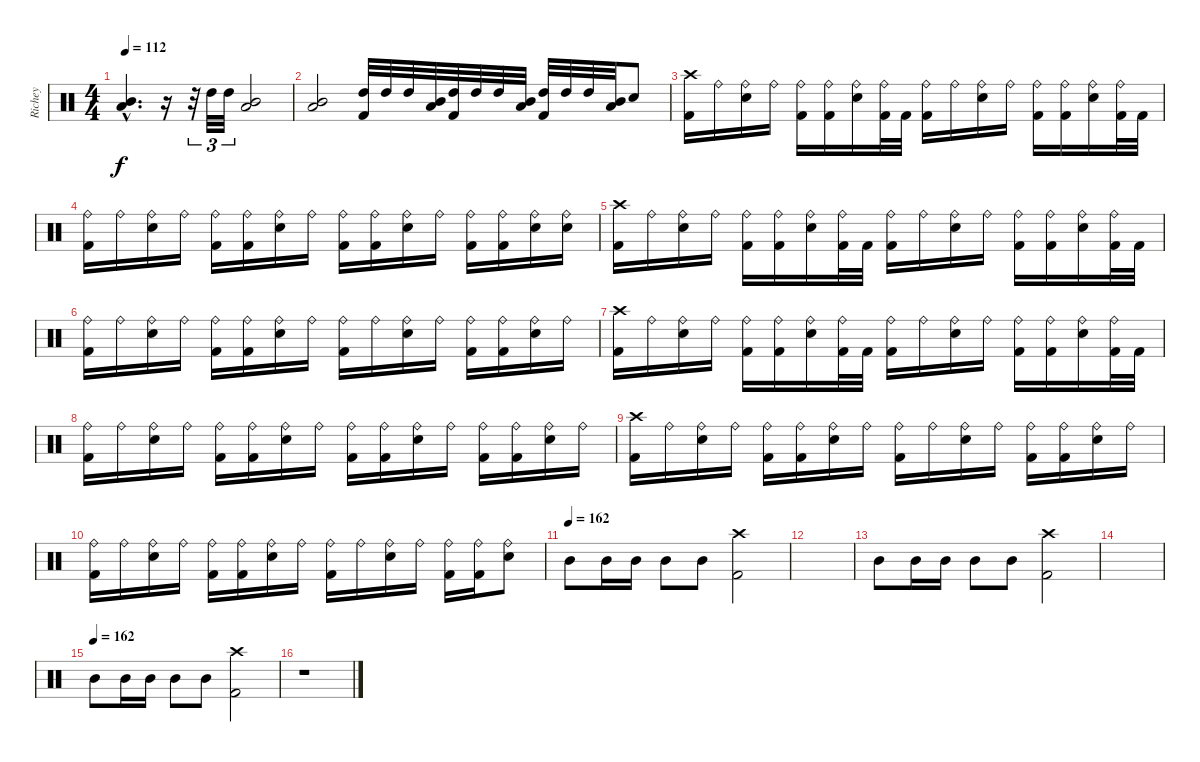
\track ("Richey" "Richey") {instrument percussion}
\staff {score}
\articulation defaults
\ts (4 4)
\tempo 112
\clef neutral
\ks c
("Mid Tom (hit)"{hac} "Low Tom (hit)"{hac}).4{d dy f} r.16 r.32{tu (3 2)} "High Tom (hit)".32{tu (3 2)} "High Tom (hit)".32{tu (3 2)} ("Mid Tom (hit)" "Low Tom (hit)").2 |
("Mid Tom (hit)" "Low Tom (hit)").2 ("High Tom (hit)" "Kick (hit) 2").32 "High Tom (hit)".32 "High Tom (hit)".32 ("Mid Tom (hit)" "Low Tom (hit)").32 ("High Tom (hit)" "Kick (hit) 2").32 "High Tom (hit)".32 "High Tom (hit)".32 ("Mid Tom (hit)" "Low Tom (hit)").32 ("High Tom (hit)" "Kick (hit) 2").32 "High Tom (hit)".32 "High Tom (hit)".32 ("Mid Tom (hit)" "Low Tom (hit)").32 "Snare (hit) 2".8 |
("Crash high (hit)" "Kick (hit) 2").16 "Ride (bell)".16 ("Ride (bell)" "Snare (hit) 2").16 "Ride (bell)".16 ("Ride (bell)" "Kick (hit) 2").16 ("Ride (bell)" "Kick (hit) 2").16 ("Ride (bell)" "Snare (hit) 2").16 ("Ride (bell)" "Kick (hit) 2").32 "Kick (hit) 2".32 ("Ride (bell)" "Kick (hit) 2").16 "Ride (bell)".16 ("Ride (bell)" "Snare (hit) 2").16 "Ride (bell)".16 ("Ride (bell)" "Kick (hit) 2").16 ("Ride (bell)" "Kick (hit) 2").16 ("Ride (bell)" "Snare (hit) 2").16 ("Ride (bell)" "Kick (hit) 2").32 "Kick (hit) 2".32 |
("Ride (bell)" "Kick (hit) 2").16 "Ride (bell)".16 ("Ride (bell)" "Snare (hit) 2").16 "Ride (bell)".16 ("Ride (bell)" "Kick (hit) 2").16 ("Ride (bell)" "Kick (hit) 2").16 ("Ride (bell)" "Snare (hit) 2").16 "Ride (bell)".16 ("Ride (bell)" "Kick (hit) 2").16 ("Ride (bell)" "Kick (hit) 2").16 ("Ride (bell)" "Snare (hit) 2").16 "Ride (bell)".16 ("Ride (bell)" "Kick (hit) 2").16 ("Ride (bell)" "Kick (hit) 2").16 ("Ride (bell)" "Snare (hit) 2").16 ("Ride (bell)" "Snare (hit) 2").16 |
("Crash high (hit)" "Kick (hit) 2").16 "Ride (bell)".16 ("Ride (bell)" "Snare (hit) 2").16 "Ride (bell)".16 ("Ride (bell)" "Kick (hit) 2").16 ("Ride (bell)" "Kick (hit) 2").16 ("Ride (bell)" "Snare (hit) 2").16 ("Ride (bell)" "Kick (hit) 2").32 "Kick (hit) 2".32 ("Ride (bell)" "Kick (hit) 2").16 "Ride (bell)".16 ("Ride (bell)" "Snare (hit) 2").16 "Ride (bell)".16 ("Ride (bell)" "Kick (hit) 2").16 ("Ride (bell)" "Kick (hit) 2").16 ("Ride (bell)" "Snare (hit) 2").16 ("Ride (bell)" "Kick (hit) 2").32 "Kick (hit) 2".32 |
("Ride (bell)" "Kick (hit) 2").16 "Ride (bell)".16 ("Ride (bell)" "Snare (hit) 2").16 "Ride (bell)".16 ("Ride (bell)" "Kick (hit) 2").16 ("Ride (bell)" "Kick (hit) 2").16 ("Ride (bell)" "Snare (hit) 2").16 "Ride (bell)".16 ("Ride (bell)" "Kick (hit) 2").16 "Ride (bell)".16 ("Ride (bell)" "Snare (hit) 2").16 "Ride (bell)".16 ("Ride (bell)" "Kick (hit) 2").16 ("Ride (bell)" "Kick (hit) 2").16 ("Ride (bell)" "Snare (hit) 2").16 "Ride (bell)".16 |
("Crash high (hit)" "Kick (hit) 2").16 "Ride (bell)".16 ("Ride (bell)" "Snare (hit) 2").16 "Ride (bell)".16 ("Ride (bell)" "Kick (hit) 2").16 ("Ride (bell)" "Kick (hit) 2").16 ("Ride (bell)" "Snare (hit) 2").16 ("Ride (bell)" "Kick (hit) 2").32 "Kick (hit) 2".32 ("Ride (bell)" "Kick (hit) 2").16 "Ride (bell)".16 ("Ride (bell)" "Snare (hit) 2").16 "Ride (bell)".16 ("Ride (bell)" "Kick (hit) 2").16 ("Ride (bell)" "Kick (hit) 2").16 ("Ride (bell)" "Snare (hit) 2").16 ("Ride (bell)" "Kick (hit) 2").32 "Kick (hit) 2".32 |
("Ride (bell)" "Kick (hit) 2").16 "Ride (bell)".16 ("Ride (bell)" "Snare (hit) 2").16 "Ride (bell)".16 ("Ride (bell)" "Kick (hit) 2").16 ("Ride (bell)" "Kick (hit) 2").16 ("Ride (bell)" "Snare (hit) 2").16 "Ride (bell)".16 ("Ride (bell)" "Kick (hit) 2").16 ("Ride (bell)" "Kick (hit) 2").16 ("Ride (bell)" "Snare (hit) 2").16 "Ride (bell)".16 ("Ride (bell)" "Kick (hit) 2").16 ("Ride (bell)" "Kick (hit) 2").16 ("Ride (bell)" "Snare (hit) 2").16 "Ride (bell)".16 |
("Crash high (hit)" "Kick (hit) 2").16 "Ride (bell)".16 ("Ride (bell)" "Snare (hit) 2").16 "Ride (bell)".16 ("Ride (bell)" "Kick (hit) 2").16 ("Ride (bell)" "Kick (hit) 2").16 ("Ride (bell)" "Snare (hit) 2").16 "Ride (bell)".16 ("Ride (bell)" "Kick (hit) 2").16 "Ride (bell)".16 ("Ride (bell)" "Snare (hit) 2").16 "Ride (bell)".16 ("Ride (bell)" "Kick (hit) 2").16 ("Ride (bell)" "Kick (hit) 2").16 ("Ride (bell)" "Snare (hit) 2").16 "Ride (bell)".16 |
("Ride (bell)" "Kick (hit) 2").16 "Ride (bell)".16 ("Ride (bell)" "Snare (hit) 2").16 "Ride (bell)".16 ("Ride (bell)" "Kick (hit) 2").16 ("Ride (bell)" "Kick (hit) 2").16 ("Ride (bell)" "Snare (hit) 2").16 "Ride (bell)".16 ("Ride (bell)" "Kick (hit) 2").16 "Ride (bell)".16 ("Ride (bell)" "Snare (hit) 2").16 "Ride (bell)".16 ("Ride (bell)" "Kick (hit) 2").16 ("Ride (bell)" "Kick (hit) 2").16 ("Ride (bell)" "Snare (hit) 2").8 |
\tempo (162)
"Mid Tom (hit)".8 "Mid Tom (hit)".16 "Mid Tom (hit)".16 "Mid Tom (hit)".8 "Mid Tom (hit)".8 ("Crash high (hit)" "Kick (hit) 2").2 |
|
"Mid Tom (hit)".8 "Mid Tom (hit)".16 "Mid Tom (hit)".16 "Mid Tom (hit)".8 "Mid Tom (hit)".8 ("Crash high (hit)" "Kick (hit) 2").2 |
|
\tempo (162)
"Mid Tom (hit)".8 "Mid Tom (hit)".16 "Mid Tom (hit)".16 "Mid Tom (hit)".8 "Mid Tom (hit)".8 ("Crash high (hit)" "Kick (hit) 2").2 |
r.1
